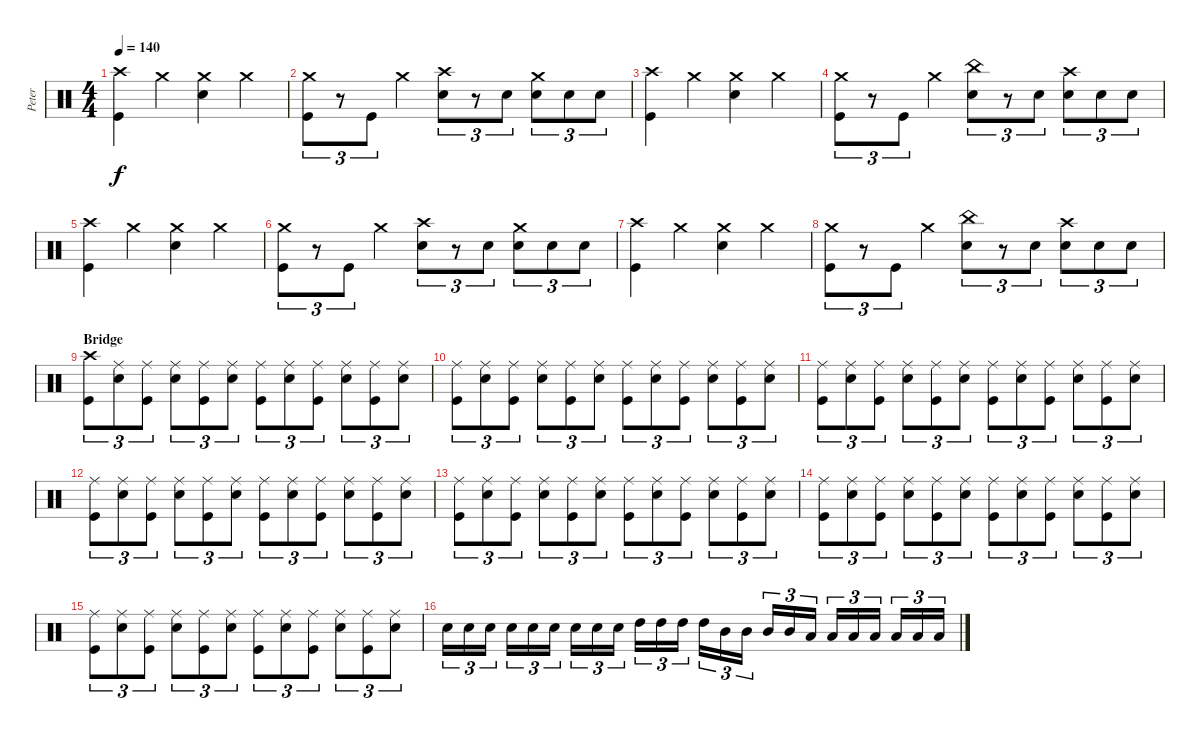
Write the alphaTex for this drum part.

\track ("Peter" "Peter") {instrument percussion}
\staff {score}
\articulation defaults
\ts (4 4)
\tempo 140
\clef neutral
\ks c
("Crash high (hit)" "Kick (hit)").4{dy f} "Crash medium (hit)".4 ("Crash medium (hit)" "Electric Snare (hit)").4 "Crash medium (hit)".4 |
("Crash medium (hit)" "Kick (hit)").8{tu (3 2)} r.8{tu (3 2)} "Kick (hit)".8{tu (3 2)} "Crash medium (hit)".4 ("Crash high (hit)" "Electric Snare (hit)").8{tu (3 2)} r.8{tu (3 2)} "Electric Snare (hit)".8{tu (3 2)} ("Crash medium (hit)" "Electric Snare (hit)").8{tu (3 2)} "Electric Snare (hit)".8{tu (3 2)} "Electric Snare (hit)".8{tu (3 2)} |
("Crash high (hit)" "Kick (hit)").4 "Crash medium (hit)".4 ("Crash medium (hit)" "Electric Snare (hit)").4 "Crash medium (hit)".4 |
("Crash medium (hit)" "Kick (hit)").8{tu (3 2)} r.8{tu (3 2)} "Kick (hit)".8{tu (3 2)} "Crash medium (hit)".4 ("China (hit)" "Electric Snare (hit)").8{tu (3 2)} r.8{tu (3 2)} "Electric Snare (hit)".8{tu (3 2)} ("Crash high (hit)" "Electric Snare (hit)").8{tu (3 2)} "Electric Snare (hit)".8{tu (3 2)} "Electric Snare (hit)".8{tu (3 2)} |
("Crash high (hit)" "Kick (hit)").4 "Crash medium (hit)".4 ("Crash medium (hit)" "Electric Snare (hit)").4 "Crash medium (hit)".4 |
("Crash medium (hit)" "Kick (hit)").8{tu (3 2)} r.8{tu (3 2)} "Kick (hit)".8{tu (3 2)} "Crash medium (hit)".4 ("Crash high (hit)" "Electric Snare (hit)").8{tu (3 2)} r.8{tu (3 2)} "Electric Snare (hit)".8{tu (3 2)} ("Crash medium (hit)" "Electric Snare (hit)").8{tu (3 2)} "Electric Snare (hit)".8{tu (3 2)} "Electric Snare (hit)".8{tu (3 2)} |
("Crash high (hit)" "Kick (hit)").4 "Crash medium (hit)".4 ("Crash medium (hit)" "Electric Snare (hit)").4 "Crash medium (hit)".4 |
("Crash medium (hit)" "Kick (hit)").8{tu (3 2)} r.8{tu (3 2)} "Kick (hit)".8{tu (3 2)} "Crash medium (hit)".4 ("China (hit)" "Electric Snare (hit)").8{tu (3 2)} r.8{tu (3 2)} "Electric Snare (hit)".8{tu (3 2)} ("Crash high (hit)" "Electric Snare (hit)").8{tu (3 2)} "Electric Snare (hit)".8{tu (3 2)} "Electric Snare (hit)".8{tu (3 2)} |
\section ("" "Bridge")
("Crash high (hit)" "Kick (hit)").8{tu (3 2)} ("Ride (middle)" "Electric Snare (hit)").8{tu (3 2)} ("Ride (middle)" "Kick (hit)").8{tu (3 2)} ("Ride (middle)" "Electric Snare (hit)").8{tu (3 2)} ("Ride (middle)" "Kick (hit)").8{tu (3 2)} ("Ride (middle)" "Electric Snare (hit)").8{tu (3 2)} ("Ride (middle)" "Kick (hit)").8{tu (3 2)} ("Ride (middle)" "Electric Snare (hit)").8{tu (3 2)} ("Ride (middle)" "Kick (hit)").8{tu (3 2)} ("Ride (middle)" "Electric Snare (hit)").8{tu (3 2)} ("Ride (middle)" "Kick (hit)").8{tu (3 2)} ("Ride (middle)" "Electric Snare (hit)").8{tu (3 2)} |
("Ride (middle)" "Kick (hit)").8{tu (3 2)} ("Ride (middle)" "Electric Snare (hit)").8{tu (3 2)} ("Ride (middle)" "Kick (hit)").8{tu (3 2)} ("Ride (middle)" "Electric Snare (hit)").8{tu (3 2)} ("Ride (middle)" "Kick (hit)").8{tu (3 2)} ("Ride (middle)" "Electric Snare (hit)").8{tu (3 2)} ("Ride (middle)" "Kick (hit)").8{tu (3 2)} ("Ride (middle)" "Electric Snare (hit)").8{tu (3 2)} ("Ride (middle)" "Kick (hit)").8{tu (3 2)} ("Ride (middle)" "Electric Snare (hit)").8{tu (3 2)} ("Ride (middle)" "Kick (hit)").8{tu (3 2)} ("Ride (middle)" "Electric Snare (hit)").8{tu (3 2)} |
("Ride (middle)" "Kick (hit)").8{tu (3 2)} ("Ride (middle)" "Electric Snare (hit)").8{tu (3 2)} ("Ride (middle)" "Kick (hit)").8{tu (3 2)} ("Ride (middle)" "Electric Snare (hit)").8{tu (3 2)} ("Ride (middle)" "Kick (hit)").8{tu (3 2)} ("Ride (middle)" "Electric Snare (hit)").8{tu (3 2)} ("Ride (middle)" "Kick (hit)").8{tu (3 2)} ("Ride (middle)" "Electric Snare (hit)").8{tu (3 2)} ("Ride (middle)" "Kick (hit)").8{tu (3 2)} ("Ride (middle)" "Electric Snare (hit)").8{tu (3 2)} ("Ride (middle)" "Kick (hit)").8{tu (3 2)} ("Ride (middle)" "Electric Snare (hit)").8{tu (3 2)} |
("Ride (middle)" "Kick (hit)").8{tu (3 2)} ("Ride (middle)" "Electric Snare (hit)").8{tu (3 2)} ("Ride (middle)" "Kick (hit)").8{tu (3 2)} ("Ride (middle)" "Electric Snare (hit)").8{tu (3 2)} ("Ride (middle)" "Kick (hit)").8{tu (3 2)} ("Ride (middle)" "Electric Snare (hit)").8{tu (3 2)} ("Ride (middle)" "Kick (hit)").8{tu (3 2)} ("Ride (middle)" "Electric Snare (hit)").8{tu (3 2)} ("Ride (middle)" "Kick (hit)").8{tu (3 2)} ("Ride (middle)" "Electric Snare (hit)").8{tu (3 2)} ("Ride (middle)" "Kick (hit)").8{tu (3 2)} ("Ride (middle)" "Electric Snare (hit)").8{tu (3 2)} |
("Ride (middle)" "Kick (hit)").8{tu (3 2)} ("Ride (middle)" "Electric Snare (hit)").8{tu (3 2)} ("Ride (middle)" "Kick (hit)").8{tu (3 2)} ("Ride (middle)" "Electric Snare (hit)").8{tu (3 2)} ("Ride (middle)" "Kick (hit)").8{tu (3 2)} ("Ride (middle)" "Electric Snare (hit)").8{tu (3 2)} ("Ride (middle)" "Kick (hit)").8{tu (3 2)} ("Ride (middle)" "Electric Snare (hit)").8{tu (3 2)} ("Ride (middle)" "Kick (hit)").8{tu (3 2)} ("Ride (middle)" "Electric Snare (hit)").8{tu (3 2)} ("Ride (middle)" "Kick (hit)").8{tu (3 2)} ("Ride (middle)" "Electric Snare (hit)").8{tu (3 2)} |
("Ride (middle)" "Kick (hit)").8{tu (3 2)} ("Ride (middle)" "Electric Snare (hit)").8{tu (3 2)} ("Ride (middle)" "Kick (hit)").8{tu (3 2)} ("Ride (middle)" "Electric Snare (hit)").8{tu (3 2)} ("Ride (middle)" "Kick (hit)").8{tu (3 2)} ("Ride (middle)" "Electric Snare (hit)").8{tu (3 2)} ("Ride (middle)" "Kick (hit)").8{tu (3 2)} ("Ride (middle)" "Electric Snare (hit)").8{tu (3 2)} ("Ride (middle)" "Kick (hit)").8{tu (3 2)} ("Ride (middle)" "Electric Snare (hit)").8{tu (3 2)} ("Ride (middle)" "Kick (hit)").8{tu (3 2)} ("Ride (middle)" "Electric Snare (hit)").8{tu (3 2)} |
("Ride (middle)" "Kick (hit)").8{tu (3 2)} ("Ride (middle)" "Electric Snare (hit)").8{tu (3 2)} ("Ride (middle)" "Kick (hit)").8{tu (3 2)} ("Ride (middle)" "Electric Snare (hit)").8{tu (3 2)} ("Ride (middle)" "Kick (hit)").8{tu (3 2)} ("Ride (middle)" "Electric Snare (hit)").8{tu (3 2)} ("Ride (middle)" "Kick (hit)").8{tu (3 2)} ("Ride (middle)" "Electric Snare (hit)").8{tu (3 2)} ("Ride (middle)" "Kick (hit)").8{tu (3 2)} ("Ride (middle)" "Electric Snare (hit)").8{tu (3 2)} ("Ride (middle)" "Kick (hit)").8{tu (3 2)} ("Ride (middle)" "Electric Snare (hit)").8{tu (3 2)} |
"Electric Snare (hit)".16{tu (3 2)} "Electric Snare (hit)".16{tu (3 2)} "Electric Snare (hit)".16{tu (3 2)} "Electric Snare (hit)".16{tu (3 2)} "Electric Snare (hit)".16{tu (3 2)} "Electric Snare (hit)".16{tu (3 2)} "Electric Snare (hit)".16{tu (3 2)} "Electric Snare (hit)".16{tu (3 2)} "Electric Snare (hit)".16{tu (3 2)} "High Tom (hit)".16{tu (3 2)} "High Tom (hit)".16{tu (3 2)} "High Tom (hit)".16{tu (3 2)} "High Tom (hit)".16{tu (3 2)} "Mid Tom (hit)".16{tu (3 2)} "Mid Tom (hit)".16{tu (3 2)} "Mid Tom (hit)".16{tu (3 2)} "Mid Tom (hit)".16{tu (3 2)} "Low Tom (hit)".16{tu (3 2)} "Low Tom (hit)".16{tu (3 2)} "Low Tom (hit)".16{tu (3 2)} "Low Tom (hit)".16{tu (3 2)} "Low Tom (hit)".16{tu (3 2)} "Low Tom (hit)".16{tu (3 2)} "Low Tom (hit)".16{tu (3 2)}
